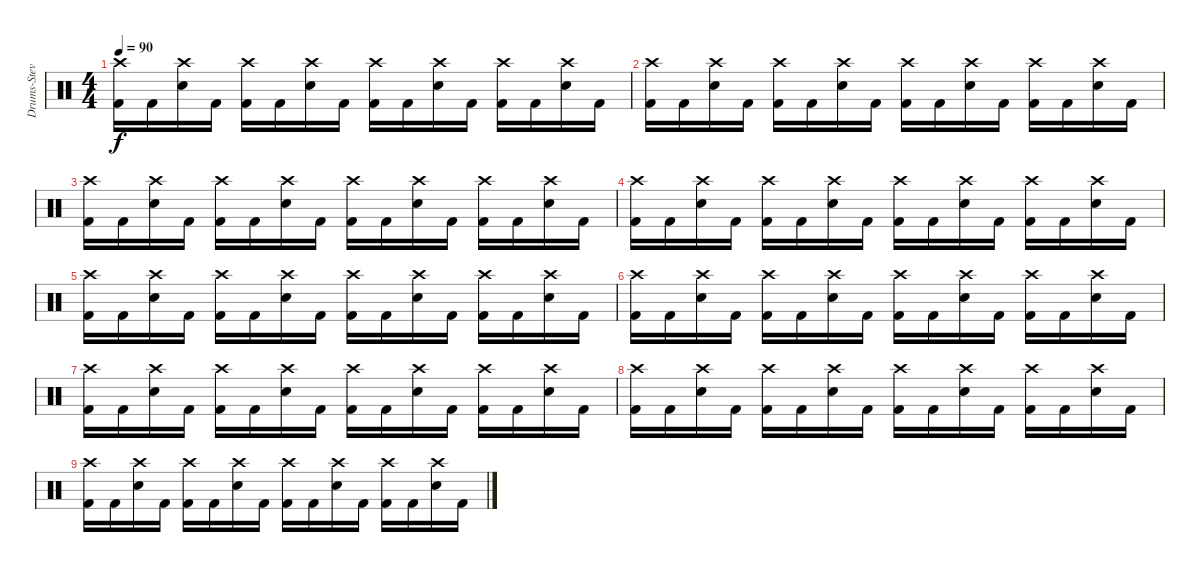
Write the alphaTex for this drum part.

\track ("Drums-Steve" "Drums-Stev") {instrument percussion}
\staff {score}
\articulation defaults
\ts (4 4)
\tempo 90
\clef neutral
\ks c
("Crash high (hit)" "Kick (hit) 2").16{dy f} "Kick (hit) 2".16 ("Crash high (hit)" "Electric Snare (hit)").16 "Kick (hit) 2".16 ("Crash high (hit)" "Kick (hit) 2").16 "Kick (hit) 2".16 ("Crash high (hit)" "Electric Snare (hit)").16 "Kick (hit) 2".16 ("Crash high (hit)" "Kick (hit) 2").16 "Kick (hit) 2".16 ("Crash high (hit)" "Electric Snare (hit)").16 "Kick (hit) 2".16 ("Crash high (hit)" "Kick (hit) 2").16 "Kick (hit) 2".16 ("Crash high (hit)" "Electric Snare (hit)").16 "Kick (hit) 2".16 |
("Crash high (hit)" "Kick (hit) 2").16 "Kick (hit) 2".16 ("Crash high (hit)" "Electric Snare (hit)").16 "Kick (hit) 2".16 ("Crash high (hit)" "Kick (hit) 2").16 "Kick (hit) 2".16 ("Crash high (hit)" "Electric Snare (hit)").16 "Kick (hit) 2".16 ("Crash high (hit)" "Kick (hit) 2").16 "Kick (hit) 2".16 ("Crash high (hit)" "Electric Snare (hit)").16 "Kick (hit) 2".16 ("Crash high (hit)" "Kick (hit) 2").16 "Kick (hit) 2".16 ("Crash high (hit)" "Electric Snare (hit)").16 "Kick (hit) 2".16 |
("Crash high (hit)" "Kick (hit) 2").16 "Kick (hit) 2".16 ("Crash high (hit)" "Electric Snare (hit)").16 "Kick (hit) 2".16 ("Crash high (hit)" "Kick (hit) 2").16 "Kick (hit) 2".16 ("Crash high (hit)" "Electric Snare (hit)").16 "Kick (hit) 2".16 ("Crash high (hit)" "Kick (hit) 2").16 "Kick (hit) 2".16 ("Crash high (hit)" "Electric Snare (hit)").16 "Kick (hit) 2".16 ("Crash high (hit)" "Kick (hit) 2").16 "Kick (hit) 2".16 ("Crash high (hit)" "Electric Snare (hit)").16 "Kick (hit) 2".16 |
("Crash high (hit)" "Kick (hit) 2").16 "Kick (hit) 2".16 ("Crash high (hit)" "Electric Snare (hit)").16 "Kick (hit) 2".16 ("Crash high (hit)" "Kick (hit) 2").16 "Kick (hit) 2".16 ("Crash high (hit)" "Electric Snare (hit)").16 "Kick (hit) 2".16 ("Crash high (hit)" "Kick (hit) 2").16 "Kick (hit) 2".16 ("Crash high (hit)" "Electric Snare (hit)").16 "Kick (hit) 2".16 ("Crash high (hit)" "Kick (hit) 2").16 "Kick (hit) 2".16 ("Crash high (hit)" "Electric Snare (hit)").16 "Kick (hit) 2".16 |
("Crash high (hit)" "Kick (hit) 2").16 "Kick (hit) 2".16 ("Crash high (hit)" "Electric Snare (hit)").16 "Kick (hit) 2".16 ("Crash high (hit)" "Kick (hit) 2").16 "Kick (hit) 2".16 ("Crash high (hit)" "Electric Snare (hit)").16 "Kick (hit) 2".16 ("Crash high (hit)" "Kick (hit) 2").16 "Kick (hit) 2".16 ("Crash high (hit)" "Electric Snare (hit)").16 "Kick (hit) 2".16 ("Crash high (hit)" "Kick (hit) 2").16 "Kick (hit) 2".16 ("Crash high (hit)" "Electric Snare (hit)").16 "Kick (hit) 2".16 |
("Crash high (hit)" "Kick (hit) 2").16 "Kick (hit) 2".16 ("Crash high (hit)" "Electric Snare (hit)").16 "Kick (hit) 2".16 ("Crash high (hit)" "Kick (hit) 2").16 "Kick (hit) 2".16 ("Crash high (hit)" "Electric Snare (hit)").16 "Kick (hit) 2".16 ("Crash high (hit)" "Kick (hit) 2").16 "Kick (hit) 2".16 ("Crash high (hit)" "Electric Snare (hit)").16 "Kick (hit) 2".16 ("Crash high (hit)" "Kick (hit) 2").16 "Kick (hit) 2".16 ("Crash high (hit)" "Electric Snare (hit)").16 "Kick (hit) 2".16 |
("Crash high (hit)" "Kick (hit) 2").16 "Kick (hit) 2".16 ("Crash high (hit)" "Electric Snare (hit)").16 "Kick (hit) 2".16 ("Crash high (hit)" "Kick (hit) 2").16 "Kick (hit) 2".16 ("Crash high (hit)" "Electric Snare (hit)").16 "Kick (hit) 2".16 ("Crash high (hit)" "Kick (hit) 2").16 "Kick (hit) 2".16 ("Crash high (hit)" "Electric Snare (hit)").16 "Kick (hit) 2".16 ("Crash high (hit)" "Kick (hit) 2").16 "Kick (hit) 2".16 ("Crash high (hit)" "Electric Snare (hit)").16 "Kick (hit) 2".16 |
("Crash high (hit)" "Kick (hit) 2").16 "Kick (hit) 2".16 ("Crash high (hit)" "Electric Snare (hit)").16 "Kick (hit) 2".16 ("Crash high (hit)" "Kick (hit) 2").16 "Kick (hit) 2".16 ("Crash high (hit)" "Electric Snare (hit)").16 "Kick (hit) 2".16 ("Crash high (hit)" "Kick (hit) 2").16 "Kick (hit) 2".16 ("Crash high (hit)" "Electric Snare (hit)").16 "Kick (hit) 2".16 ("Crash high (hit)" "Kick (hit) 2").16 "Kick (hit) 2".16 ("Crash high (hit)" "Electric Snare (hit)").16 "Kick (hit) 2".16 |
("Crash high (hit)" "Kick (hit) 2").16 "Kick (hit) 2".16 ("Crash high (hit)" "Electric Snare (hit)").16 "Kick (hit) 2".16 ("Crash high (hit)" "Kick (hit) 2").16 "Kick (hit) 2".16 ("Crash high (hit)" "Electric Snare (hit)").16 "Kick (hit) 2".16 ("Crash high (hit)" "Kick (hit) 2").16 "Kick (hit) 2".16 ("Crash high (hit)" "Electric Snare (hit)").16 "Kick (hit) 2".16 ("Crash high (hit)" "Kick (hit) 2").16 "Kick (hit) 2".16 ("Crash high (hit)" "Electric Snare (hit)").16 "Kick (hit) 2".16
